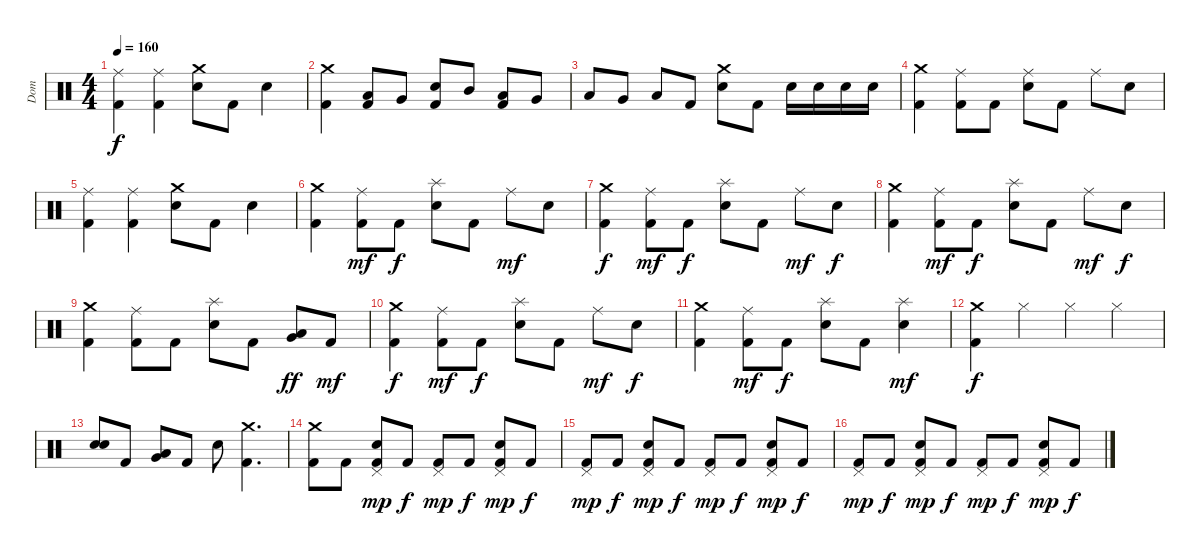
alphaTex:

\track ("Dom" "Dom") {instrument percussion}
\staff {score}
\articulation defaults
\ts (4 4)
\tempo 160
\clef neutral
\ks c
("Ride (middle)" "Kick (hit) 2").4{dy f} ("Ride (middle)" "Kick (hit) 2").4 ("Crash medium (hit)" "Snare (hit) 2").8 "Kick (hit) 2".8 "Snare (hit) 2".4 |
("Crash medium (hit)" "Kick (hit) 2").4 ("Low Tom (hit)" "Kick (hit) 2").8 "Very Low Tom (hit)".8 ("Snare (hit) 2" "Kick (hit) 2").8 "Mid Tom (hit)".8 ("Low Tom (hit)" "Kick (hit) 2").8 "Very Low Tom (hit)".8 |
"Low Tom (hit)".8 "Very Low Tom (hit)".8 "Low Floor Tom (hit)".8 "Kick (hit) 2".8 ("Crash medium (hit)" "Snare (hit) 2").8 "Kick (hit) 2".8 "Snare (hit) 2".16 "Snare (hit) 2".16 "Snare (hit) 2".16 "Snare (hit) 2".16 |
("Crash medium (hit)" "Kick (hit) 2").4 ("Ride (middle)" "Kick (hit) 2").8 "Kick (hit) 2".8 ("Ride (middle)" "Snare (hit) 2").8 "Kick (hit) 2".8 "Ride (middle)".8 "Snare (hit) 2".8 |
("Ride (middle)" "Kick (hit) 2").4 ("Ride (middle)" "Kick (hit) 2").4 ("Crash medium (hit)" "Snare (hit) 2").8 "Kick (hit) 2".8 "Snare (hit) 2".4 |
("Crash medium (hit)" "Kick (hit) 2").4 ("Ride (middle)" "Kick (hit) 2").8{dy mf} "Kick (hit) 2".8{dy f} ("Splash (hit)" "Snare (hit) 2").8 "Kick (hit) 2".8 "Ride (middle)".8{dy mf} "Snare (hit) 2".8 |
("Crash medium (hit)" "Kick (hit) 2").4{dy f} ("Ride (middle)" "Kick (hit) 2").8{dy mf} "Kick (hit) 2".8{dy f} ("Splash (hit)" "Snare (hit) 2").8 "Kick (hit) 2".8 "Ride (middle)".8{dy mf} "Snare (hit) 2".8{dy f} |
("Crash medium (hit)" "Kick (hit) 2").4 ("Ride (middle)" "Kick (hit) 2").8{dy mf} "Kick (hit) 2".8{dy f} ("Splash (hit)" "Snare (hit) 2").8 "Kick (hit) 2".8 "Ride (middle)".8{dy mf} "Snare (hit) 2".8{dy f} |
("Crash medium (hit)" "Kick (hit) 2").4 ("Ride (middle)" "Kick (hit) 2").8 "Kick (hit) 2".8 ("Splash (hit)" "Snare (hit) 2").8 "Kick (hit) 2".8 ("Very Low Tom (hit)" "Low Tom (hit)").8{dy ff} "Kick (hit) 2".8{dy mf} |
("Crash medium (hit)" "Kick (hit) 2").4{dy f} ("Ride (middle)" "Kick (hit) 2").8{dy mf} "Kick (hit) 2".8{dy f} ("Splash (hit)" "Snare (hit) 2").8 "Kick (hit) 2".8 "Ride (middle)".8{dy mf} "Snare (hit) 2".8{dy f} |
("Crash medium (hit)" "Kick (hit) 2").4 ("Ride (middle)" "Kick (hit) 2").8{dy mf} "Kick (hit) 2".8{dy f} ("Splash (hit)" "Snare (hit) 2").8 "Kick (hit) 2".8 ("Splash (hit)" "Snare (hit) 2").4{dy mf} |
("Crash medium (hit)" "Kick (hit) 2").4{dy f} "Hi-Hat (closed)".4 "Hi-Hat (closed)".4 "Hi-Hat (closed)".4 |
("Snare (hit) 2" "Snare (hit) 2").8 "Kick (hit) 2".8 ("Very Low Tom (hit)" "Low Tom (hit)").8 "Kick (hit) 2".8 "Snare (hit) 2".8 ("Crash medium (hit)" "Kick (hit) 2").4{d} |
("Crash medium (hit)" "Kick (hit) 2").8 "Kick (hit) 2".8 ("Pedal Hi-Hat (hit)" "Snare (hit) 2" "Kick (hit) 2").8{dy mp} "Kick (hit) 2".8{dy f} ("Pedal Hi-Hat (hit)" "Kick (hit) 2").8{dy mp} "Kick (hit) 2".8{dy f} ("Pedal Hi-Hat (hit)" "Snare (hit) 2" "Kick (hit) 2").8{dy mp} "Kick (hit) 2".8{dy f} |
("Pedal Hi-Hat (hit)" "Kick (hit) 2").8{dy mp} "Kick (hit) 2".8{dy f} ("Pedal Hi-Hat (hit)" "Snare (hit) 2" "Kick (hit) 2").8{dy mp} "Kick (hit) 2".8{dy f} ("Pedal Hi-Hat (hit)" "Kick (hit) 2").8{dy mp} "Kick (hit) 2".8{dy f} ("Pedal Hi-Hat (hit)" "Snare (hit) 2" "Kick (hit) 2").8{dy mp} "Kick (hit) 2".8{dy f} |
("Pedal Hi-Hat (hit)" "Kick (hit) 2").8{dy mp} "Kick (hit) 2".8{dy f} ("Pedal Hi-Hat (hit)" "Snare (hit) 2" "Kick (hit) 2").8{dy mp} "Kick (hit) 2".8{dy f} ("Pedal Hi-Hat (hit)" "Kick (hit) 2").8{dy mp} "Kick (hit) 2".8{dy f} ("Pedal Hi-Hat (hit)" "Snare (hit) 2" "Kick (hit) 2").8{dy mp} "Kick (hit) 2".8{dy f}
